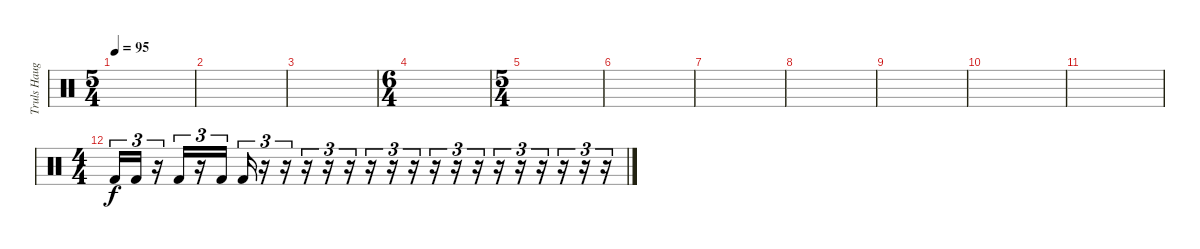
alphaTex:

\track ("Truls Haugen" "Truls Haug") {instrument percussion}
\staff {score}
\articulation defaults
\ts (5 4)
\tempo 95
\clef neutral
\ks c
|
|
|
\ts (6 4)
|
\ts (5 4)
|
|
|
|
|
|
|
\ts (4 4)
"Kick (hit) 2".16{tu (3 2)} "Kick (hit) 2".16{tu (3 2)} r.16{tu (3 2)} "Kick (hit) 2".16{tu (3 2)} r.16{tu (3 2)} "Kick (hit) 2".16{tu (3 2)} "Kick (hit) 2".16{tu (3 2)} r.16{tu (3 2)} r.16{tu (3 2)} r.16{tu (3 2)} r.16{tu (3 2)} r.16{tu (3 2)} r.16{tu (3 2)} r.16{tu (3 2)} r.16{tu (3 2)} r.16{tu (3 2)} r.16{tu (3 2)} r.16{tu (3 2)} r.16{tu (3 2)} r.16{tu (3 2)} r.16{tu (3 2)} r.16{tu (3 2)} r.16{tu (3 2)} r.16{tu (3 2)}
